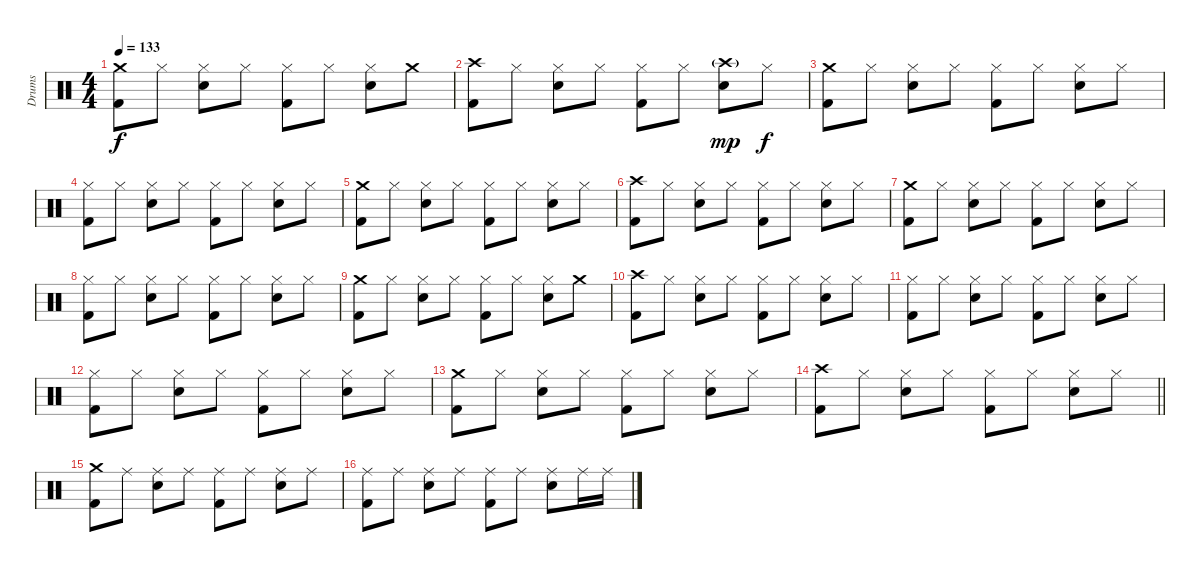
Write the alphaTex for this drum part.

\track ("Drums" "Drums") {instrument percussion}
\staff {score}
\articulation defaults
\ts (4 4)
\tempo 133
\clef neutral
\ks c
("Crash medium (hit)" "Kick (hit) 2").8{dy f} "Hi-Hat (closed)".8 ("Hi-Hat (closed)" "Snare (hit) 2").8 "Hi-Hat (closed)".8 ("Hi-Hat (closed)" "Kick (hit) 2").8 "Hi-Hat (closed)".8 ("Hi-Hat (closed)" "Snare (hit) 2").8 "Crash medium (hit)".8 |
("Crash high (hit)" "Kick (hit) 2").8 "Hi-Hat (closed)".8 ("Hi-Hat (closed)" "Snare (hit) 2").8 "Hi-Hat (closed)".8 ("Hi-Hat (closed)" "Kick (hit) 2").8 "Hi-Hat (closed)".8 ("Crash high (hit)"{g} "Snare (hit) 2").8{dy mp} "Hi-Hat (closed)".8{dy f} |
("Crash medium (hit)" "Kick (hit) 2").8 "Hi-Hat (closed)".8 ("Hi-Hat (closed)" "Snare (hit) 2").8 "Hi-Hat (closed)".8 ("Hi-Hat (closed)" "Kick (hit) 2").8 "Hi-Hat (closed)".8 ("Hi-Hat (closed)" "Snare (hit) 2").8 "Hi-Hat (closed)".8 |
("Hi-Hat (closed)" "Kick (hit) 2").8 "Hi-Hat (closed)".8 ("Hi-Hat (closed)" "Snare (hit) 2").8 "Hi-Hat (closed)".8 ("Hi-Hat (closed)" "Kick (hit) 2").8 "Hi-Hat (closed)".8 ("Hi-Hat (closed)" "Snare (hit) 2").8 "Hi-Hat (closed)".8 |
("Crash medium (hit)" "Kick (hit) 2").8 "Hi-Hat (closed)".8 ("Hi-Hat (closed)" "Snare (hit) 2").8 "Hi-Hat (closed)".8 ("Hi-Hat (closed)" "Kick (hit) 2").8 "Hi-Hat (closed)".8 ("Hi-Hat (closed)" "Snare (hit) 2").8 "Hi-Hat (closed)".8 |
("Crash high (hit)" "Kick (hit) 2").8 "Hi-Hat (closed)".8 ("Hi-Hat (closed)" "Snare (hit) 2").8 "Hi-Hat (closed)".8 ("Hi-Hat (closed)" "Kick (hit) 2").8 "Hi-Hat (closed)".8 ("Hi-Hat (closed)" "Snare (hit) 2").8 "Hi-Hat (closed)".8 |
("Crash medium (hit)" "Kick (hit) 2").8 "Hi-Hat (closed)".8 ("Hi-Hat (closed)" "Snare (hit) 2").8 "Hi-Hat (closed)".8 ("Hi-Hat (closed)" "Kick (hit) 2").8 "Hi-Hat (closed)".8 ("Hi-Hat (closed)" "Snare (hit) 2").8 "Hi-Hat (closed)".8 |
("Hi-Hat (closed)" "Kick (hit) 2").8 "Hi-Hat (closed)".8 ("Hi-Hat (closed)" "Snare (hit) 2").8 "Hi-Hat (closed)".8 ("Hi-Hat (closed)" "Kick (hit) 2").8 "Hi-Hat (closed)".8 ("Hi-Hat (closed)" "Snare (hit) 2").8 "Hi-Hat (closed)".8 |
("Crash medium (hit)" "Kick (hit) 2").8 "Hi-Hat (closed)".8 ("Hi-Hat (closed)" "Snare (hit) 2").8 "Hi-Hat (closed)".8 ("Hi-Hat (closed)" "Kick (hit) 2").8 "Hi-Hat (closed)".8 ("Hi-Hat (closed)" "Snare (hit) 2").8 "Crash medium (hit)".8 |
("Crash high (hit)" "Kick (hit) 2").8 "Hi-Hat (closed)".8 ("Hi-Hat (closed)" "Snare (hit) 2").8 "Hi-Hat (closed)".8 ("Hi-Hat (closed)" "Kick (hit) 2").8 "Hi-Hat (closed)".8 ("Hi-Hat (closed)" "Snare (hit) 2").8 "Hi-Hat (closed)".8 |
("Hi-Hat (closed)" "Kick (hit) 2").8 "Hi-Hat (closed)".8 ("Hi-Hat (closed)" "Snare (hit) 2").8 "Hi-Hat (closed)".8 ("Hi-Hat (closed)" "Kick (hit) 2").8 "Hi-Hat (closed)".8 ("Hi-Hat (closed)" "Snare (hit) 2").8 "Hi-Hat (closed)".8 |
("Hi-Hat (closed)" "Kick (hit) 2").8 "Hi-Hat (closed)".8 ("Hi-Hat (closed)" "Snare (hit) 2").8 "Hi-Hat (closed)".8 ("Hi-Hat (closed)" "Kick (hit) 2").8 "Hi-Hat (closed)".8 ("Hi-Hat (closed)" "Snare (hit) 2").8 "Hi-Hat (closed)".8 |
("Crash medium (hit)" "Kick (hit) 2").8 "Hi-Hat (closed)".8 ("Hi-Hat (closed)" "Snare (hit) 2").8 "Hi-Hat (closed)".8 ("Hi-Hat (closed)" "Kick (hit) 2").8 "Hi-Hat (closed)".8 ("Hi-Hat (closed)" "Snare (hit) 2").8 "Hi-Hat (closed)".8 |
\barLineRight lightlight
("Crash high (hit)" "Kick (hit) 2").8 "Hi-Hat (closed)".8 ("Hi-Hat (closed)" "Snare (hit) 2").8 "Hi-Hat (closed)".8 ("Hi-Hat (closed)" "Kick (hit) 2").8 "Hi-Hat (closed)".8 ("Hi-Hat (closed)" "Snare (hit) 2").8 "Hi-Hat (closed)".8 |
\section ("" "")
("Crash medium (hit)" "Kick (hit) 2").8 "Ride (middle)".8 ("Ride (middle)" "Snare (hit) 2").8 "Ride (middle)".8 ("Ride (middle)" "Kick (hit) 2").8 "Ride (middle)".8 ("Ride (middle)" "Snare (hit) 2").8 "Ride (middle)".8 |
("Ride (middle)" "Kick (hit) 2").8 "Ride (middle)".8 ("Ride (middle)" "Snare (hit) 2").8 "Ride (middle)".8 ("Ride (middle)" "Kick (hit) 2").8 "Ride (middle)".8 ("Ride (middle)" "Snare (hit) 2").8 "Ride (middle)".16 "Ride (middle)".16
